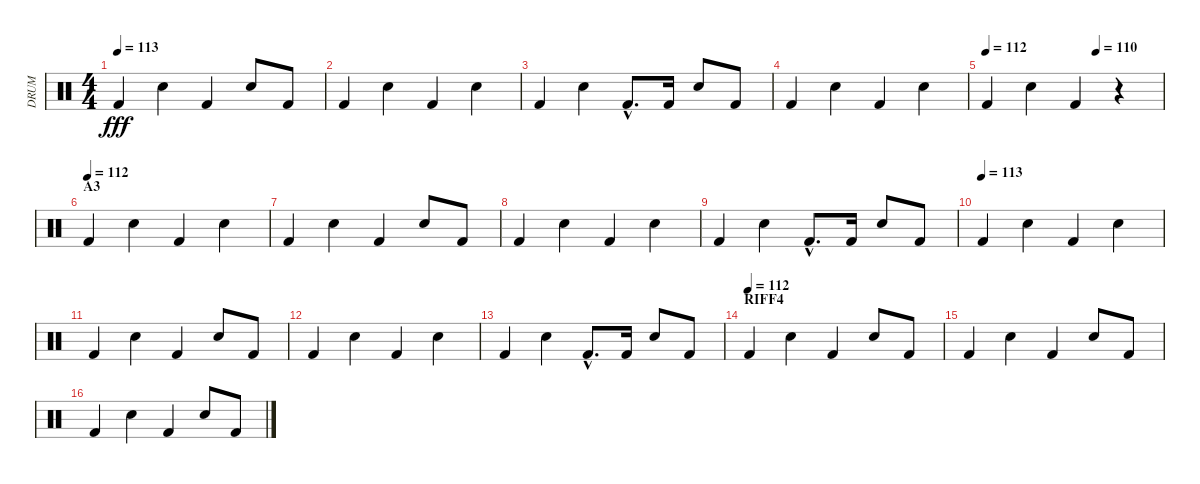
\track ("DRUM" "DRUM") {instrument percussion}
\staff {score}
\articulation defaults
\ts (4 4)
\tempo 113
\clef neutral
\ks c "Kick (hit) 2".4{dy fff} "Electric Snare (hit)".4 "Kick (hit) 2".4 "Electric Snare (hit)".8 "Kick (hit) 2".8
|
"Kick (hit) 2".4 "Electric Snare (hit)".4 "Kick (hit) 2".4 "Electric Snare (hit)".4 |
"Kick (hit) 2".4 "Electric Snare (hit)".4 "Kick (hit) 2"{hac}.8{d} "Kick (hit) 2".16 "Electric Snare (hit)".8 "Kick (hit) 2".8 |
"Kick (hit) 2".4 "Electric Snare (hit)".4 "Kick (hit) 2".4 "Electric Snare (hit)".4 |
\tempo 112
\tempo (110 0.625)
"Kick (hit) 2".4 "Electric Snare (hit)".4 "Kick (hit) 2".4 r.4 |
\section ("" "A3")
\tempo (112)
"Kick (hit) 2".4 "Electric Snare (hit)".4 "Kick (hit) 2".4 "Electric Snare (hit)".4 |
"Kick (hit) 2".4 "Electric Snare (hit)".4 "Kick (hit) 2".4 "Electric Snare (hit)".8 "Kick (hit) 2".8 |
"Kick (hit) 2".4 "Electric Snare (hit)".4 "Kick (hit) 2".4 "Electric Snare (hit)".4 |
"Kick (hit) 2".4 "Electric Snare (hit)".4 "Kick (hit) 2"{hac}.8{d} "Kick (hit) 2".16 "Electric Snare (hit)".8 "Kick (hit) 2".8 |
\tempo (113)
"Kick (hit) 2".4 "Electric Snare (hit)".4 "Kick (hit) 2".4 "Electric Snare (hit)".4 |
"Kick (hit) 2".4 "Electric Snare (hit)".4 "Kick (hit) 2".4 "Electric Snare (hit)".8 "Kick (hit) 2".8 |
"Kick (hit) 2".4 "Electric Snare (hit)".4 "Kick (hit) 2".4 "Electric Snare (hit)".4 |
"Kick (hit) 2".4 "Electric Snare (hit)".4 "Kick (hit) 2"{hac}.8{d} "Kick (hit) 2".16 "Electric Snare (hit)".8 "Kick (hit) 2".8 |
\section ("" "RIFF4")
\tempo (112)
"Kick (hit) 2".4 "Electric Snare (hit)".4 "Kick (hit) 2".4 "Electric Snare (hit)".8 "Kick (hit) 2".8 |
"Kick (hit) 2".4 "Electric Snare (hit)".4 "Kick (hit) 2".4 "Electric Snare (hit)".8 "Kick (hit) 2".8 |
"Kick (hit) 2".4 "Electric Snare (hit)".4 "Kick (hit) 2".4 "Electric Snare (hit)".8 "Kick (hit) 2".8
